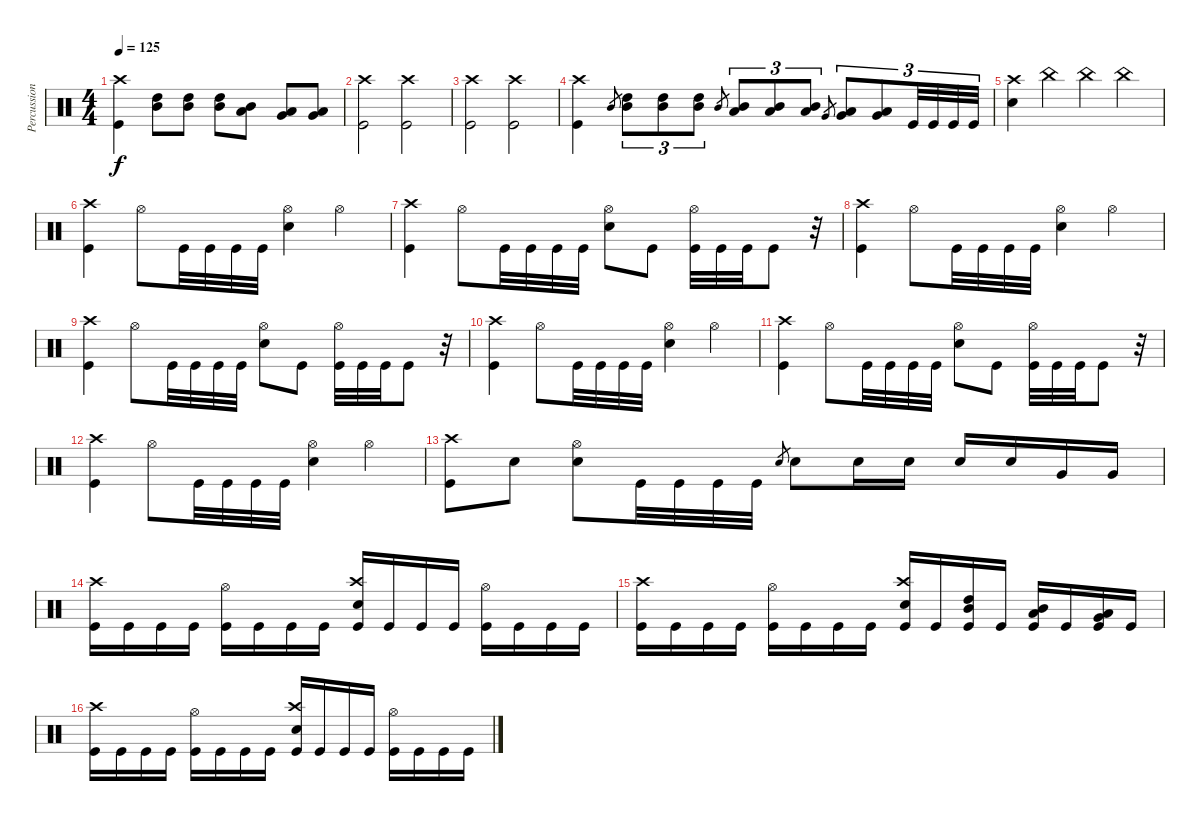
\track ("Percussion" "Percussion") {instrument percussion}
\staff {score}
\articulation defaults
\ts (4 4)
\tempo 125
\clef neutral
\ks c
("Kick (hit)" "Crash high (hit)").4{dy f} ("High Tom (hit)" "Mid Tom (hit)").8 ("High Tom (hit)" "Mid Tom (hit)").8 ("Mid Tom (hit)" "High Tom (hit)").8 ("Mid Tom (hit)" "Low Tom (hit)").8 ("Low Tom (hit)" "Very Low Tom (hit)").8 ("Low Tom (hit)" "Very Low Tom (hit)").8 |
("Kick (hit)" "Crash high (hit)").2 ("Kick (hit)" "Crash high (hit)").2 |
("Kick (hit)" "Crash high (hit)").2 ("Kick (hit)" "Crash high (hit)").2 |
("Kick (hit)" "Crash high (hit)").4 "Mid Tom (hit)".8{gr} ("High Tom (hit)" "Mid Tom (hit)").8{tu (3 2)} ("High Tom (hit)" "Mid Tom (hit)").8{tu (3 2)} ("High Tom (hit)" "Mid Tom (hit)").8{tu (3 2)} "Mid Tom (hit)".8{gr} ("Mid Tom (hit)" "Low Tom (hit)").8{tu (3 2)} ("Mid Tom (hit)" "Low Tom (hit)").8{tu (3 2)} ("Mid Tom (hit)" "Low Tom (hit)").8{tu (3 2)} "Very Low Tom (hit)".8{gr} ("Low Tom (hit)" "Very Low Tom (hit)").8{tu (3 2)} ("Low Tom (hit)" "Very Low Tom (hit)").8{tu (3 2)} "Kick (hit)".32{tu (3 2)} "Kick (hit)".32{tu (3 2)} "Kick (hit)".32{tu (3 2)} "Kick (hit)".32{tu (3 2)} |
("Snare (hit) 2" "Crash high (hit)").4 "China (hit)".4 "China (hit)".4 "China (hit)".4 |
("Kick (hit)" "Crash high (hit)").4 "Hi-Hat (open)".8 "Kick (hit)".32 "Kick (hit)".32 "Kick (hit)".32 "Kick (hit)".32 ("Snare (hit) 2" "Hi-Hat (open)").4 "Hi-Hat (open)".4 |
("Kick (hit)" "Crash high (hit)").4 "Hi-Hat (open)".8 "Kick (hit)".32 "Kick (hit)".32 "Kick (hit)".32 "Kick (hit)".32 ("Snare (hit) 2" "Hi-Hat (open)").8 "Kick (hit)".8 ("Kick (hit)" "Hi-Hat (open)").32 "Kick (hit)".32 "Kick (hit)".32 "Kick (hit)".8 r.32 |
("Kick (hit)" "Crash high (hit)").4 "Hi-Hat (open)".8 "Kick (hit)".32 "Kick (hit)".32 "Kick (hit)".32 "Kick (hit)".32 ("Snare (hit) 2" "Hi-Hat (open)").4 "Hi-Hat (open)".4 |
("Kick (hit)" "Crash high (hit)").4 "Hi-Hat (open)".8 "Kick (hit)".32 "Kick (hit)".32 "Kick (hit)".32 "Kick (hit)".32 ("Snare (hit) 2" "Hi-Hat (open)").8 "Kick (hit)".8 ("Kick (hit)" "Hi-Hat (open)").32 "Kick (hit)".32 "Kick (hit)".32 "Kick (hit)".8 r.32 |
("Kick (hit)" "Crash high (hit)").4 "Hi-Hat (open)".8 "Kick (hit)".32 "Kick (hit)".32 "Kick (hit)".32 "Kick (hit)".32 ("Snare (hit) 2" "Hi-Hat (open)").4 "Hi-Hat (open)".4 |
("Kick (hit)" "Crash high (hit)").4 "Hi-Hat (open)".8 "Kick (hit)".32 "Kick (hit)".32 "Kick (hit)".32 "Kick (hit)".32 ("Snare (hit) 2" "Hi-Hat (open)").8 "Kick (hit)".8 ("Kick (hit)" "Hi-Hat (open)").32 "Kick (hit)".32 "Kick (hit)".32 "Kick (hit)".8 r.32 |
("Kick (hit)" "Crash high (hit)").4 "Hi-Hat (open)".8 "Kick (hit)".32 "Kick (hit)".32 "Kick (hit)".32 "Kick (hit)".32 ("Snare (hit) 2" "Hi-Hat (open)").4 "Hi-Hat (open)".4 |
("Kick (hit)" "Crash high (hit)").8 "Snare (hit) 2".8 ("Snare (hit) 2" "Hi-Hat (open)").8 "Kick (hit)".32 "Kick (hit)".32 "Kick (hit)".32 "Kick (hit)".32 "Snare (hit) 2".8{gr} "Snare (hit) 2".8 "Snare (hit) 2".16 "Snare (hit) 2".16 "Snare (hit) 2".16 "Snare (hit) 2".16 "Very Low Tom (hit)".16 "Very Low Tom (hit)".16 |
("Kick (hit)" "Crash high (hit)").16 "Kick (hit)".16 "Kick (hit)".16 "Kick (hit)".16 ("Kick (hit)" "Hi-Hat (open)").16 "Kick (hit)".16 "Kick (hit)".16 "Kick (hit)".16 ("Kick (hit)" "Snare (hit) 2" "Crash high (hit)").16 "Kick (hit)".16 "Kick (hit)".16 "Kick (hit)".16 ("Kick (hit)" "Hi-Hat (open)").16 "Kick (hit)".16 "Kick (hit)".16 "Kick (hit)".16 |
("Kick (hit)" "Crash high (hit)").16 "Kick (hit)".16 "Kick (hit)".16 "Kick (hit)".16 ("Kick (hit)" "Hi-Hat (open)").16 "Kick (hit)".16 "Kick (hit)".16 "Kick (hit)".16 ("Kick (hit)" "Snare (hit) 2" "Crash high (hit)").16 "Kick (hit)".16 ("Kick (hit)" "High Tom (hit)" "Mid Tom (hit)").16 "Kick (hit)".16 ("Kick (hit)" "Mid Tom (hit)" "Low Tom (hit)").16 "Kick (hit)".16 ("Kick (hit)" "Very Low Tom (hit)" "Low Tom (hit)").16 "Kick (hit)".16 |
("Kick (hit)" "Crash high (hit)").16 "Kick (hit)".16 "Kick (hit)".16 "Kick (hit)".16 ("Kick (hit)" "Hi-Hat (open)").16 "Kick (hit)".16 "Kick (hit)".16 "Kick (hit)".16 ("Kick (hit)" "Snare (hit) 2" "Crash high (hit)").16 "Kick (hit)".16 "Kick (hit)".16 "Kick (hit)".16 ("Kick (hit)" "Hi-Hat (open)").16 "Kick (hit)".16 "Kick (hit)".16 "Kick (hit)".16
